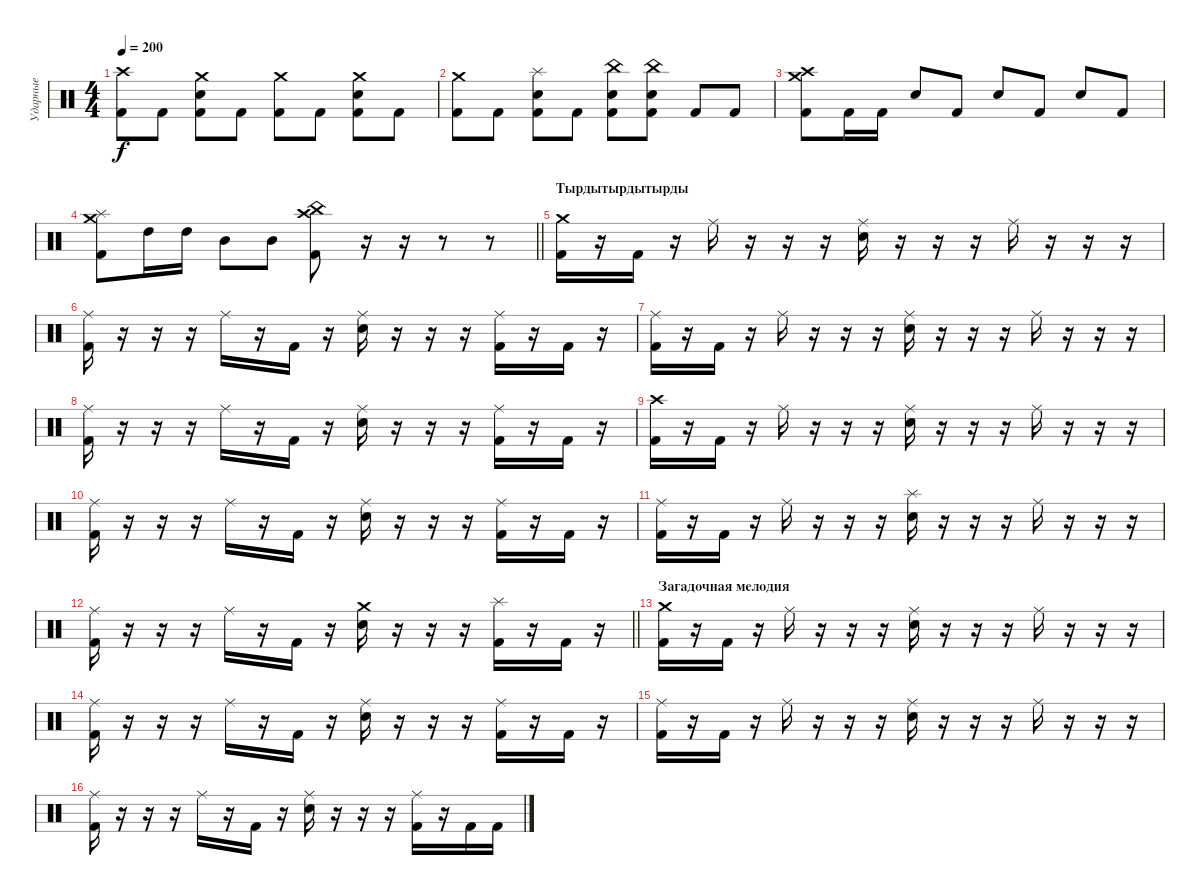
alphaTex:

\track ("Ударные" "Ударные") {instrument percussion}
\staff {score}
\articulation defaults
\ts (4 4)
\tempo 200
\clef neutral
\ks c
("Kick (hit) 2" "Crash high (hit)").8{dy f} "Kick (hit) 2".8 ("Kick (hit) 2" "Electric Snare (hit)" "Crash medium (hit)").8 "Kick (hit) 2".8 ("Kick (hit) 2" "Crash medium (hit)").8 "Kick (hit) 2".8 ("Kick (hit) 2" "Electric Snare (hit)" "Crash medium (hit)").8 "Kick (hit) 2".8 |
("Kick (hit) 2" "Crash medium (hit)").8 "Kick (hit) 2".8 ("Kick (hit) 2" "Electric Snare (hit)" "Splash (hit)").8 "Kick (hit) 2".8 ("Kick (hit) 2" "Electric Snare (hit)" "China (hit)").8 ("Kick (hit) 2" "Electric Snare (hit)" "China (hit)").8 "Kick (hit) 2".8 "Kick (hit) 2".8 |
("Kick (hit) 2" "Crash high (hit)" "Crash medium (hit)").8 "Kick (hit) 2".16 "Kick (hit) 2".16 "Electric Snare (hit)".8 "Kick (hit) 2".8 "Electric Snare (hit)".8 "Kick (hit) 2".8 "Electric Snare (hit)".8 "Kick (hit) 2".8 |
\barLineRight lightlight
("Kick (hit) 2" "Splash (hit)" "Crash medium (hit)").8 "High Tom (hit)".16 "High Tom (hit)".16 "Mid Tom (hit)".8 "Mid Tom (hit)".8 ("Kick (hit) 2" "China (hit)" "Crash high (hit)").8 r.16 r.16 r.8 r.8 |
\section ("" "Тырдытырдытырды")
("Kick (hit) 2" "Crash medium (hit)").16 r.16 "Kick (hit) 2".16 r.16 "Ride (middle)".16 r.16 r.16 r.16 ("Electric Snare (hit)" "Ride (middle)").16 r.16 r.16 r.16 "Ride (middle)".16 r.16 r.16 r.16 |
("Kick (hit) 2" "Ride (middle)").16 r.16 r.16 r.16 "Ride (middle)".16 r.16 "Kick (hit) 2".16 r.16 ("Electric Snare (hit)" "Ride (middle)").16 r.16 r.16 r.16 ("Kick (hit) 2" "Ride (middle)").16 r.16 "Kick (hit) 2".16 r.16 |
("Kick (hit) 2" "Ride (middle)").16 r.16 "Kick (hit) 2".16 r.16 "Ride (middle)".16 r.16 r.16 r.16 ("Electric Snare (hit)" "Ride (middle)").16 r.16 r.16 r.16 "Ride (middle)".16 r.16 r.16 r.16 |
("Kick (hit) 2" "Ride (middle)").16 r.16 r.16 r.16 "Ride (middle)".16 r.16 "Kick (hit) 2".16 r.16 ("Electric Snare (hit)" "Ride (middle)").16 r.16 r.16 r.16 ("Kick (hit) 2" "Ride (middle)").16 r.16 "Kick (hit) 2".16 r.16 |
("Kick (hit) 2" "Crash high (hit)").16 r.16 "Kick (hit) 2".16 r.16 "Ride (middle)".16 r.16 r.16 r.16 ("Electric Snare (hit)" "Ride (middle)").16 r.16 r.16 r.16 "Ride (middle)".16 r.16 r.16 r.16 |
("Kick (hit) 2" "Ride (middle)").16 r.16 r.16 r.16 "Ride (middle)".16 r.16 "Kick (hit) 2".16 r.16 ("Electric Snare (hit)" "Ride (middle)").16 r.16 r.16 r.16 ("Kick (hit) 2" "Ride (middle)").16 r.16 "Kick (hit) 2".16 r.16 |
("Kick (hit) 2" "Ride (middle)").16 r.16 "Kick (hit) 2".16 r.16 "Ride (middle)".16 r.16 r.16 r.16 ("Electric Snare (hit)" "Splash (hit)").16 r.16 r.16 r.16 "Ride (middle)".16 r.16 r.16 r.16 |
\barLineRight lightlight
("Kick (hit) 2" "Ride (middle)").16 r.16 r.16 r.16 "Ride (middle)".16 r.16 "Kick (hit) 2".16 r.16 ("Electric Snare (hit)" "Crash medium (hit)").16 r.16 r.16 r.16 ("Kick (hit) 2" "Splash (hit)").16 r.16 "Kick (hit) 2".16 r.16 |
\section ("" "Загадочная мелодия")
("Kick (hit) 2" "Crash medium (hit)").16 r.16 "Kick (hit) 2".16 r.16 "Ride (middle)".16 r.16 r.16 r.16 ("Electric Snare (hit)" "Ride (middle)").16 r.16 r.16 r.16 "Ride (middle)".16 r.16 r.16 r.16 |
("Kick (hit) 2" "Ride (middle)").16 r.16 r.16 r.16 "Ride (middle)".16 r.16 "Kick (hit) 2".16 r.16 ("Electric Snare (hit)" "Ride (middle)").16 r.16 r.16 r.16 ("Kick (hit) 2" "Ride (middle)").16 r.16 "Kick (hit) 2".16 r.16 |
("Kick (hit) 2" "Ride (middle)").16 r.16 "Kick (hit) 2".16 r.16 "Ride (middle)".16 r.16 r.16 r.16 ("Electric Snare (hit)" "Ride (middle)").16 r.16 r.16 r.16 "Ride (middle)".16 r.16 r.16 r.16 |
("Kick (hit) 2" "Ride (middle)").16 r.16 r.16 r.16 "Ride (middle)".16 r.16 "Kick (hit) 2".16 r.16 ("Electric Snare (hit)" "Ride (middle)").16 r.16 r.16 r.16 ("Kick (hit) 2" "Ride (middle)").16 r.16 "Kick (hit) 2".16 "Kick (hit) 2".16
